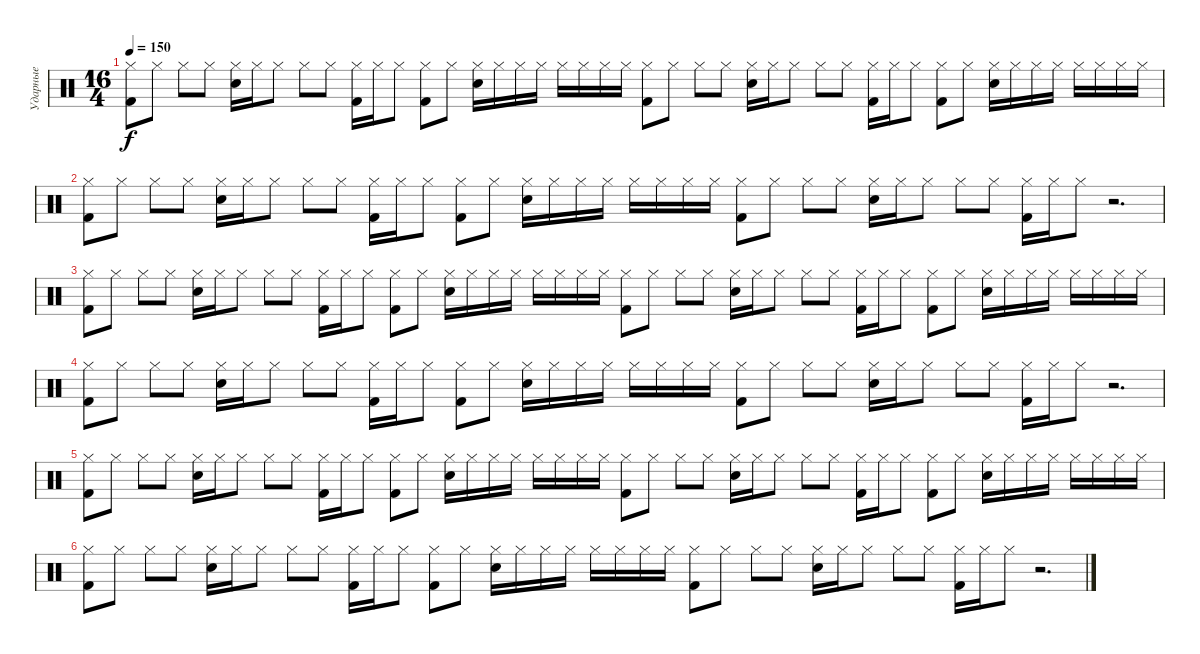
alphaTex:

\track ("Ударные" "Ударные") {instrument percussion}
\staff {score}
\articulation defaults
\ts (16 4)
\tempo 150
\clef neutral
\ks c
("Hi-Hat (closed)" "Kick (hit) 2").8{dy f} "Hi-Hat (closed)".8 "Hi-Hat (closed)".8 "Hi-Hat (closed)".8 ("Hi-Hat (closed)" "Electric Snare (hit)").16 "Hi-Hat (closed)".16 "Hi-Hat (closed)".8 "Hi-Hat (closed)".8 "Hi-Hat (closed)".8 ("Hi-Hat (closed)" "Kick (hit) 2").16 "Hi-Hat (closed)".16 "Hi-Hat (closed)".8 ("Hi-Hat (closed)" "Kick (hit) 2").8 "Hi-Hat (closed)".8 ("Hi-Hat (closed)" "Electric Snare (hit)").16 "Hi-Hat (closed)".16 "Hi-Hat (closed)".16 "Hi-Hat (closed)".16 "Hi-Hat (closed)".16 "Hi-Hat (closed)".16 "Hi-Hat (closed)".16 "Hi-Hat (closed)".16 ("Hi-Hat (closed)" "Kick (hit) 2").8 "Hi-Hat (closed)".8 "Hi-Hat (closed)".8 "Hi-Hat (closed)".8 ("Hi-Hat (closed)" "Electric Snare (hit)").16 "Hi-Hat (closed)".16 "Hi-Hat (closed)".8 "Hi-Hat (closed)".8 "Hi-Hat (closed)".8 ("Hi-Hat (closed)" "Kick (hit) 2").16 "Hi-Hat (closed)".16 "Hi-Hat (closed)".8 ("Hi-Hat (closed)" "Kick (hit) 2").8 "Hi-Hat (closed)".8 ("Hi-Hat (closed)" "Electric Snare (hit)").16 "Hi-Hat (closed)".16 "Hi-Hat (closed)".16 "Hi-Hat (closed)".16 "Hi-Hat (closed)".16 "Hi-Hat (closed)".16 "Hi-Hat (closed)".16 "Hi-Hat (closed)".16 |
("Hi-Hat (closed)" "Kick (hit) 2").8 "Hi-Hat (closed)".8 "Hi-Hat (closed)".8 "Hi-Hat (closed)".8 ("Hi-Hat (closed)" "Electric Snare (hit)").16 "Hi-Hat (closed)".16 "Hi-Hat (closed)".8 "Hi-Hat (closed)".8 "Hi-Hat (closed)".8 ("Hi-Hat (closed)" "Kick (hit) 2").16 "Hi-Hat (closed)".16 "Hi-Hat (closed)".8 ("Hi-Hat (closed)" "Kick (hit) 2").8 "Hi-Hat (closed)".8 ("Hi-Hat (closed)" "Electric Snare (hit)").16 "Hi-Hat (closed)".16 "Hi-Hat (closed)".16 "Hi-Hat (closed)".16 "Hi-Hat (closed)".16 "Hi-Hat (closed)".16 "Hi-Hat (closed)".16 "Hi-Hat (closed)".16 ("Hi-Hat (closed)" "Kick (hit) 2").8 "Hi-Hat (closed)".8 "Hi-Hat (closed)".8 "Hi-Hat (closed)".8 ("Hi-Hat (closed)" "Electric Snare (hit)").16 "Hi-Hat (closed)".16 "Hi-Hat (closed)".8 "Hi-Hat (closed)".8 "Hi-Hat (closed)".8 ("Hi-Hat (closed)" "Kick (hit) 2").16 "Hi-Hat (closed)".16 "Hi-Hat (closed)".8 r.2{d} |
("Hi-Hat (closed)" "Kick (hit) 2").8 "Hi-Hat (closed)".8 "Hi-Hat (closed)".8 "Hi-Hat (closed)".8 ("Hi-Hat (closed)" "Electric Snare (hit)").16 "Hi-Hat (closed)".16 "Hi-Hat (closed)".8 "Hi-Hat (closed)".8 "Hi-Hat (closed)".8 ("Hi-Hat (closed)" "Kick (hit) 2").16 "Hi-Hat (closed)".16 "Hi-Hat (closed)".8 ("Hi-Hat (closed)" "Kick (hit) 2").8 "Hi-Hat (closed)".8 ("Hi-Hat (closed)" "Electric Snare (hit)").16 "Hi-Hat (closed)".16 "Hi-Hat (closed)".16 "Hi-Hat (closed)".16 "Hi-Hat (closed)".16 "Hi-Hat (closed)".16 "Hi-Hat (closed)".16 "Hi-Hat (closed)".16 ("Hi-Hat (closed)" "Kick (hit) 2").8 "Hi-Hat (closed)".8 "Hi-Hat (closed)".8 "Hi-Hat (closed)".8 ("Hi-Hat (closed)" "Electric Snare (hit)").16 "Hi-Hat (closed)".16 "Hi-Hat (closed)".8 "Hi-Hat (closed)".8 "Hi-Hat (closed)".8 ("Hi-Hat (closed)" "Kick (hit) 2").16 "Hi-Hat (closed)".16 "Hi-Hat (closed)".8 ("Hi-Hat (closed)" "Kick (hit) 2").8 "Hi-Hat (closed)".8 ("Hi-Hat (closed)" "Electric Snare (hit)").16 "Hi-Hat (closed)".16 "Hi-Hat (closed)".16 "Hi-Hat (closed)".16 "Hi-Hat (closed)".16 "Hi-Hat (closed)".16 "Hi-Hat (closed)".16 "Hi-Hat (closed)".16 |
("Hi-Hat (closed)" "Kick (hit) 2").8 "Hi-Hat (closed)".8 "Hi-Hat (closed)".8 "Hi-Hat (closed)".8 ("Hi-Hat (closed)" "Electric Snare (hit)").16 "Hi-Hat (closed)".16 "Hi-Hat (closed)".8 "Hi-Hat (closed)".8 "Hi-Hat (closed)".8 ("Hi-Hat (closed)" "Kick (hit) 2").16 "Hi-Hat (closed)".16 "Hi-Hat (closed)".8 ("Hi-Hat (closed)" "Kick (hit) 2").8 "Hi-Hat (closed)".8 ("Hi-Hat (closed)" "Electric Snare (hit)").16 "Hi-Hat (closed)".16 "Hi-Hat (closed)".16 "Hi-Hat (closed)".16 "Hi-Hat (closed)".16 "Hi-Hat (closed)".16 "Hi-Hat (closed)".16 "Hi-Hat (closed)".16 ("Hi-Hat (closed)" "Kick (hit) 2").8 "Hi-Hat (closed)".8 "Hi-Hat (closed)".8 "Hi-Hat (closed)".8 ("Hi-Hat (closed)" "Electric Snare (hit)").16 "Hi-Hat (closed)".16 "Hi-Hat (closed)".8 "Hi-Hat (closed)".8 "Hi-Hat (closed)".8 ("Hi-Hat (closed)" "Kick (hit) 2").16 "Hi-Hat (closed)".16 "Hi-Hat (closed)".8 r.2{d} |
("Hi-Hat (closed)" "Kick (hit) 2").8 "Hi-Hat (closed)".8 "Hi-Hat (closed)".8 "Hi-Hat (closed)".8 ("Hi-Hat (closed)" "Electric Snare (hit)").16 "Hi-Hat (closed)".16 "Hi-Hat (closed)".8 "Hi-Hat (closed)".8 "Hi-Hat (closed)".8 ("Hi-Hat (closed)" "Kick (hit) 2").16 "Hi-Hat (closed)".16 "Hi-Hat (closed)".8 ("Hi-Hat (closed)" "Kick (hit) 2").8 "Hi-Hat (closed)".8 ("Hi-Hat (closed)" "Electric Snare (hit)").16 "Hi-Hat (closed)".16 "Hi-Hat (closed)".16 "Hi-Hat (closed)".16 "Hi-Hat (closed)".16 "Hi-Hat (closed)".16 "Hi-Hat (closed)".16 "Hi-Hat (closed)".16 ("Hi-Hat (closed)" "Kick (hit) 2").8 "Hi-Hat (closed)".8 "Hi-Hat (closed)".8 "Hi-Hat (closed)".8 ("Hi-Hat (closed)" "Electric Snare (hit)").16 "Hi-Hat (closed)".16 "Hi-Hat (closed)".8 "Hi-Hat (closed)".8 "Hi-Hat (closed)".8 ("Hi-Hat (closed)" "Kick (hit) 2").16 "Hi-Hat (closed)".16 "Hi-Hat (closed)".8 ("Hi-Hat (closed)" "Kick (hit) 2").8 "Hi-Hat (closed)".8 ("Hi-Hat (closed)" "Electric Snare (hit)").16 "Hi-Hat (closed)".16 "Hi-Hat (closed)".16 "Hi-Hat (closed)".16 "Hi-Hat (closed)".16 "Hi-Hat (closed)".16 "Hi-Hat (closed)".16 "Hi-Hat (closed)".16 |
("Hi-Hat (closed)" "Kick (hit) 2").8 "Hi-Hat (closed)".8 "Hi-Hat (closed)".8 "Hi-Hat (closed)".8 ("Hi-Hat (closed)" "Electric Snare (hit)").16 "Hi-Hat (closed)".16 "Hi-Hat (closed)".8 "Hi-Hat (closed)".8 "Hi-Hat (closed)".8 ("Hi-Hat (closed)" "Kick (hit) 2").16 "Hi-Hat (closed)".16 "Hi-Hat (closed)".8 ("Hi-Hat (closed)" "Kick (hit) 2").8 "Hi-Hat (closed)".8 ("Hi-Hat (closed)" "Electric Snare (hit)").16 "Hi-Hat (closed)".16 "Hi-Hat (closed)".16 "Hi-Hat (closed)".16 "Hi-Hat (closed)".16 "Hi-Hat (closed)".16 "Hi-Hat (closed)".16 "Hi-Hat (closed)".16 ("Hi-Hat (closed)" "Kick (hit) 2").8 "Hi-Hat (closed)".8 "Hi-Hat (closed)".8 "Hi-Hat (closed)".8 ("Hi-Hat (closed)" "Electric Snare (hit)").16 "Hi-Hat (closed)".16 "Hi-Hat (closed)".8 "Hi-Hat (closed)".8 "Hi-Hat (closed)".8 ("Hi-Hat (closed)" "Kick (hit) 2").16 "Hi-Hat (closed)".16 "Hi-Hat (closed)".8 r.2{d}
